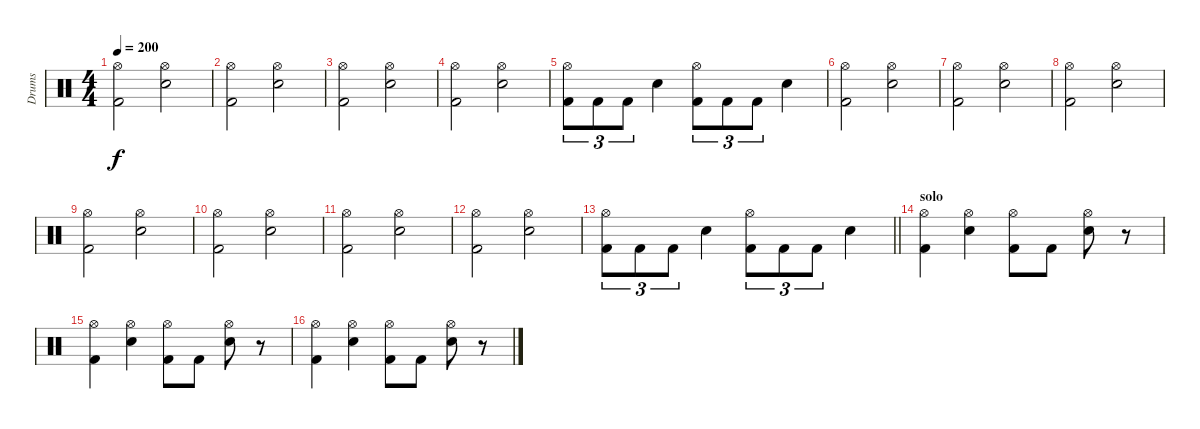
\track ("Drums" "Drums") {instrument percussion}
\staff {score}
\articulation defaults
\ts (4 4)
\tempo 200
\clef neutral
\ks c
("Hi-Hat (open)" "Kick (hit) 2").2{dy f} ("Hi-Hat (open)" "Electric Snare (hit)").2 |
("Hi-Hat (open)" "Kick (hit) 2").2 ("Hi-Hat (open)" "Electric Snare (hit)").2 |
("Hi-Hat (open)" "Kick (hit) 2").2 ("Hi-Hat (open)" "Electric Snare (hit)").2 |
("Hi-Hat (open)" "Kick (hit) 2").2 ("Hi-Hat (open)" "Electric Snare (hit)").2 |
("Hi-Hat (open)" "Kick (hit) 2").8{tu (3 2)} "Kick (hit) 2".8{tu (3 2)} "Kick (hit) 2".8{tu (3 2)} "Electric Snare (hit)".4 ("Hi-Hat (open)" "Kick (hit) 2").8{tu (3 2)} "Kick (hit) 2".8{tu (3 2)} "Kick (hit) 2".8{tu (3 2)} "Electric Snare (hit)".4 |
("Hi-Hat (open)" "Kick (hit) 2").2 ("Hi-Hat (open)" "Electric Snare (hit)").2 |
("Hi-Hat (open)" "Kick (hit) 2").2 ("Hi-Hat (open)" "Electric Snare (hit)").2 |
("Hi-Hat (open)" "Kick (hit) 2").2 ("Hi-Hat (open)" "Electric Snare (hit)").2 |
("Hi-Hat (open)" "Kick (hit) 2").2 ("Hi-Hat (open)" "Electric Snare (hit)").2 |
("Hi-Hat (open)" "Kick (hit) 2").2 ("Hi-Hat (open)" "Electric Snare (hit)").2 |
("Hi-Hat (open)" "Kick (hit) 2").2 ("Hi-Hat (open)" "Electric Snare (hit)").2 |
("Hi-Hat (open)" "Kick (hit) 2").2 ("Hi-Hat (open)" "Electric Snare (hit)").2 |
\barLineRight lightlight
("Hi-Hat (open)" "Kick (hit) 2").8{tu (3 2)} "Kick (hit) 2".8{tu (3 2)} "Kick (hit) 2".8{tu (3 2)} "Electric Snare (hit)".4 ("Hi-Hat (open)" "Kick (hit) 2").8{tu (3 2)} "Kick (hit) 2".8{tu (3 2)} "Kick (hit) 2".8{tu (3 2)} "Electric Snare (hit)".4 |
\section ("" "solo")
("Hi-Hat (open)" "Kick (hit) 2").4 ("Hi-Hat (open)" "Electric Snare (hit)").4 ("Hi-Hat (open)" "Kick (hit) 2").8 "Kick (hit) 2".8 ("Hi-Hat (open)" "Electric Snare (hit)").8 r.8 |
("Hi-Hat (open)" "Kick (hit) 2").4 ("Hi-Hat (open)" "Electric Snare (hit)").4 ("Hi-Hat (open)" "Kick (hit) 2").8 "Kick (hit) 2".8 ("Hi-Hat (open)" "Electric Snare (hit)").8 r.8 |
("Hi-Hat (open)" "Kick (hit) 2").4 ("Hi-Hat (open)" "Electric Snare (hit)").4 ("Hi-Hat (open)" "Kick (hit) 2").8 "Kick (hit) 2".8 ("Hi-Hat (open)" "Electric Snare (hit)").8 r.8
